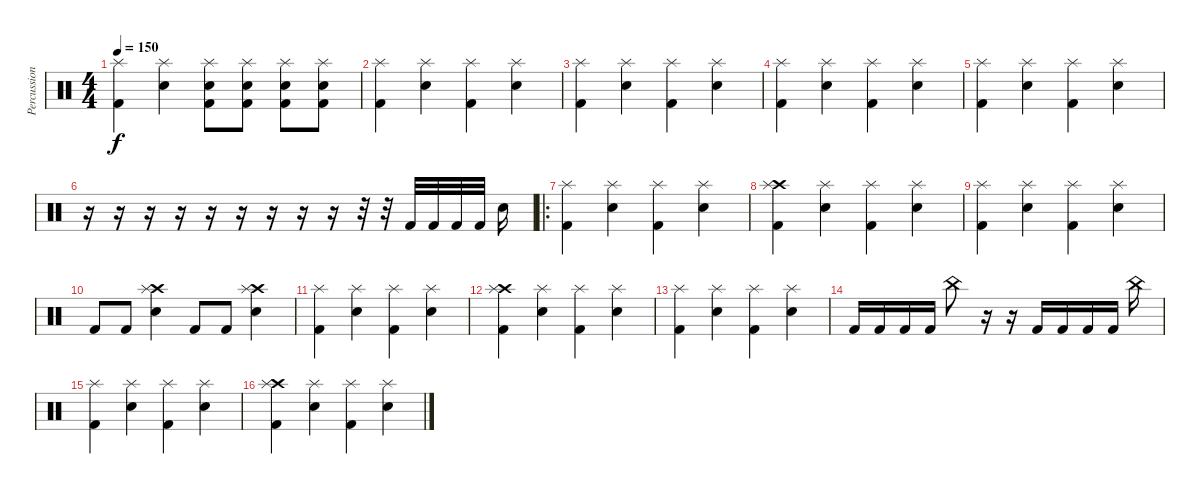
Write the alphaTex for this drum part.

\track ("Percussion" "Percussion") {instrument percussion}
\staff {score}
\articulation defaults
\ts (4 4)
\tempo 150
\clef neutral
\ks c
("Splash (hit)" "Kick (hit) 2").4{dy f} ("Splash (hit)" "Electric Snare (hit)").4 ("Splash (hit)" "Electric Snare (hit)" "Kick (hit) 2").8 ("Splash (hit)" "Electric Snare (hit)" "Kick (hit) 2").8 ("Splash (hit)" "Electric Snare (hit)" "Kick (hit) 2").8 ("Splash (hit)" "Electric Snare (hit)" "Kick (hit) 2").8 |
("Splash (hit)" "Kick (hit) 2").4 ("Splash (hit)" "Electric Snare (hit)").4 ("Splash (hit)" "Kick (hit) 2").4 ("Splash (hit)" "Electric Snare (hit)").4 |
("Splash (hit)" "Kick (hit) 2").4 ("Splash (hit)" "Electric Snare (hit)").4 ("Splash (hit)" "Kick (hit) 2").4 ("Splash (hit)" "Electric Snare (hit)").4 |
("Splash (hit)" "Kick (hit) 2").4 ("Splash (hit)" "Electric Snare (hit)").4 ("Splash (hit)" "Kick (hit) 2").4 ("Splash (hit)" "Electric Snare (hit)").4 |
("Splash (hit)" "Kick (hit) 2").4 ("Splash (hit)" "Electric Snare (hit)").4 ("Splash (hit)" "Kick (hit) 2").4 ("Splash (hit)" "Electric Snare (hit)").4 |
r.16 r.16 r.16 r.16 r.16 r.16 r.16 r.16 r.16 r.32 r.32 "Kick (hit) 2".32 "Kick (hit) 2".32 "Kick (hit) 2".32 "Kick (hit) 2".32 "Electric Snare (hit)".16 |
\ro
("Splash (hit)" "Kick (hit) 2").4 ("Splash (hit)" "Electric Snare (hit)").4 ("Splash (hit)" "Kick (hit) 2").4 ("Splash (hit)" "Electric Snare (hit)").4 |
("Crash high (hit)" "Splash (hit)" "Kick (hit) 2").4 ("Splash (hit)" "Electric Snare (hit)").4 ("Splash (hit)" "Kick (hit) 2").4 ("Splash (hit)" "Electric Snare (hit)").4 |
("Splash (hit)" "Kick (hit) 2").4 ("Splash (hit)" "Electric Snare (hit)").4 ("Splash (hit)" "Kick (hit) 2").4 ("Splash (hit)" "Electric Snare (hit)").4 |
"Kick (hit) 2".8 "Kick (hit) 2".8 ("Electric Snare (hit)" "Crash high (hit)" "Splash (hit)").4 "Kick (hit) 2".8 "Kick (hit) 2".8 ("Electric Snare (hit)" "Crash high (hit)" "Splash (hit)").4 |
("Splash (hit)" "Kick (hit) 2").4 ("Splash (hit)" "Electric Snare (hit)").4 ("Splash (hit)" "Kick (hit) 2").4 ("Splash (hit)" "Electric Snare (hit)").4 |
("Crash high (hit)" "Splash (hit)" "Kick (hit) 2").4 ("Splash (hit)" "Electric Snare (hit)").4 ("Splash (hit)" "Kick (hit) 2").4 ("Splash (hit)" "Electric Snare (hit)").4 |
("Splash (hit)" "Kick (hit) 2").4 ("Splash (hit)" "Electric Snare (hit)").4 ("Splash (hit)" "Kick (hit) 2").4 ("Splash (hit)" "Electric Snare (hit)").4 |
"Kick (hit) 2".16 "Kick (hit) 2".16 "Kick (hit) 2".16 "Kick (hit) 2".16 "China (hit)".8 r.16 r.16 "Kick (hit) 2".16 "Kick (hit) 2".16 "Kick (hit) 2".16 "Kick (hit) 2".16 "China (hit)".16 |
("Splash (hit)" "Kick (hit) 2").4 ("Splash (hit)" "Electric Snare (hit)").4 ("Splash (hit)" "Kick (hit) 2").4 ("Splash (hit)" "Electric Snare (hit)").4 |
("Crash high (hit)" "Splash (hit)" "Kick (hit) 2").4 ("Splash (hit)" "Electric Snare (hit)").4 ("Splash (hit)" "Kick (hit) 2").4 ("Splash (hit)" "Electric Snare (hit)").4
